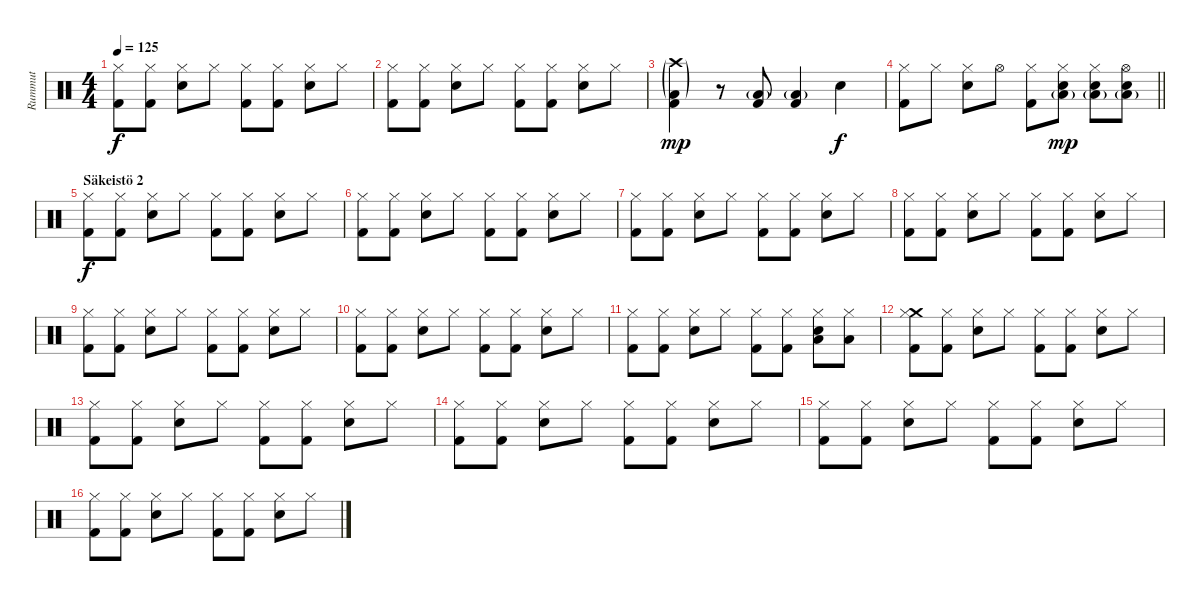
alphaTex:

\track ("Rummut" "Rummut") {instrument percussion}
\staff {score}
\articulation defaults
\ts (4 4)
\tempo 125
\clef neutral
\ks c
("Kick (hit) 2" "Hi-Hat (closed)").8{dy f} ("Kick (hit) 2" "Hi-Hat (closed)").8 ("Snare (hit) 2" "Hi-Hat (closed)").8 "Hi-Hat (closed)".8 ("Kick (hit) 2" "Hi-Hat (closed)").8 ("Kick (hit) 2" "Hi-Hat (closed)").8 ("Snare (hit) 2" "Hi-Hat (closed)").8 "Hi-Hat (closed)".8 |
("Kick (hit) 2" "Hi-Hat (closed)").8 ("Kick (hit) 2" "Hi-Hat (closed)").8 ("Snare (hit) 2" "Hi-Hat (closed)").8 "Hi-Hat (closed)".8 ("Kick (hit) 2" "Hi-Hat (closed)").8 ("Kick (hit) 2" "Hi-Hat (closed)").8 ("Snare (hit) 2" "Hi-Hat (closed)").8 "Hi-Hat (closed)".8 |
("Low Tom (hit)"{g} "Kick (hit) 2" "Crash high (hit)"{g}).4{dy mp} r.8 ("Low Tom (hit)"{g} "Kick (hit) 2").8 ("Low Tom (hit)"{g} "Kick (hit) 2").4 "Snare (hit) 2".4{dy f} |
\barLineRight lightlight
("Hi-Hat (closed)" "Kick (hit) 2").8 "Hi-Hat (closed)".8 ("Hi-Hat (closed)" "Snare (hit) 2").8 "Hi-Hat (open)".8 ("Hi-Hat (closed)" "Kick (hit) 2").8 ("Hi-Hat (closed)" "Snare (hit) 2" "Low Tom (hit)"{g}).8{dy mp} ("Hi-Hat (closed)" "Snare (hit) 2" "Low Tom (hit)"{g}).8 ("Hi-Hat (open)" "Snare (hit) 2" "Low Tom (hit)"{g}).8 |
\section ("" "Säkeistö 2")
("Kick (hit) 2" "Hi-Hat (closed)").8{dy f} ("Kick (hit) 2" "Hi-Hat (closed)").8 ("Snare (hit) 2" "Hi-Hat (closed)").8 "Hi-Hat (closed)".8 ("Kick (hit) 2" "Hi-Hat (closed)").8 ("Kick (hit) 2" "Hi-Hat (closed)").8 ("Snare (hit) 2" "Hi-Hat (closed)").8 "Hi-Hat (closed)".8 |
("Kick (hit) 2" "Hi-Hat (closed)").8 ("Kick (hit) 2" "Hi-Hat (closed)").8 ("Snare (hit) 2" "Hi-Hat (closed)").8 "Hi-Hat (closed)".8 ("Kick (hit) 2" "Hi-Hat (closed)").8 ("Kick (hit) 2" "Hi-Hat (closed)").8 ("Snare (hit) 2" "Hi-Hat (closed)").8 "Hi-Hat (closed)".8 |
("Kick (hit) 2" "Hi-Hat (closed)").8 ("Kick (hit) 2" "Hi-Hat (closed)").8 ("Snare (hit) 2" "Hi-Hat (closed)").8 "Hi-Hat (closed)".8 ("Kick (hit) 2" "Hi-Hat (closed)").8 ("Kick (hit) 2" "Hi-Hat (closed)").8 ("Snare (hit) 2" "Hi-Hat (closed)").8 "Hi-Hat (closed)".8 |
("Kick (hit) 2" "Hi-Hat (closed)").8 ("Kick (hit) 2" "Hi-Hat (closed)").8 ("Snare (hit) 2" "Hi-Hat (closed)").8 "Hi-Hat (closed)".8 ("Kick (hit) 2" "Hi-Hat (closed)").8 ("Kick (hit) 2" "Hi-Hat (closed)").8 ("Snare (hit) 2" "Hi-Hat (closed)").8 "Hi-Hat (closed)".8 |
("Kick (hit) 2" "Hi-Hat (closed)").8 ("Kick (hit) 2" "Hi-Hat (closed)").8 ("Snare (hit) 2" "Hi-Hat (closed)").8 "Hi-Hat (closed)".8 ("Kick (hit) 2" "Hi-Hat (closed)").8 ("Kick (hit) 2" "Hi-Hat (closed)").8 ("Snare (hit) 2" "Hi-Hat (closed)").8 "Hi-Hat (closed)".8 |
("Kick (hit) 2" "Hi-Hat (closed)").8 ("Kick (hit) 2" "Hi-Hat (closed)").8 ("Snare (hit) 2" "Hi-Hat (closed)").8 "Hi-Hat (closed)".8 ("Kick (hit) 2" "Hi-Hat (closed)").8 ("Kick (hit) 2" "Hi-Hat (closed)").8 ("Snare (hit) 2" "Hi-Hat (closed)").8 "Hi-Hat (closed)".8 |
("Kick (hit) 2" "Hi-Hat (closed)").8 ("Kick (hit) 2" "Hi-Hat (closed)").8 ("Snare (hit) 2" "Hi-Hat (closed)").8 "Hi-Hat (closed)".8 ("Kick (hit) 2" "Hi-Hat (closed)").8 ("Kick (hit) 2" "Hi-Hat (closed)").8 ("Low Tom (hit)" "Snare (hit) 2" "Hi-Hat (closed)").8 ("Low Tom (hit)" "Hi-Hat (closed)").8 |
("Crash medium (hit)" "Kick (hit) 2" "Hi-Hat (closed)").8 ("Kick (hit) 2" "Hi-Hat (closed)").8 ("Snare (hit) 2" "Hi-Hat (closed)").8 "Hi-Hat (closed)".8 ("Kick (hit) 2" "Hi-Hat (closed)").8 ("Kick (hit) 2" "Hi-Hat (closed)").8 ("Snare (hit) 2" "Hi-Hat (closed)").8 "Hi-Hat (closed)".8 |
("Kick (hit) 2" "Hi-Hat (closed)").8 ("Kick (hit) 2" "Hi-Hat (closed)").8 ("Snare (hit) 2" "Hi-Hat (closed)").8 "Hi-Hat (closed)".8 ("Kick (hit) 2" "Hi-Hat (closed)").8 ("Kick (hit) 2" "Hi-Hat (closed)").8 ("Snare (hit) 2" "Hi-Hat (closed)").8 "Hi-Hat (closed)".8 |
("Kick (hit) 2" "Hi-Hat (closed)").8 ("Kick (hit) 2" "Hi-Hat (closed)").8 ("Snare (hit) 2" "Hi-Hat (closed)").8 "Hi-Hat (closed)".8 ("Kick (hit) 2" "Hi-Hat (closed)").8 ("Kick (hit) 2" "Hi-Hat (closed)").8 ("Snare (hit) 2" "Hi-Hat (closed)").8 "Hi-Hat (closed)".8 |
("Kick (hit) 2" "Hi-Hat (closed)").8 ("Kick (hit) 2" "Hi-Hat (closed)").8 ("Snare (hit) 2" "Hi-Hat (closed)").8 "Hi-Hat (closed)".8 ("Kick (hit) 2" "Hi-Hat (closed)").8 ("Kick (hit) 2" "Hi-Hat (closed)").8 ("Snare (hit) 2" "Hi-Hat (closed)").8 "Hi-Hat (closed)".8 |
("Kick (hit) 2" "Hi-Hat (closed)").8 ("Kick (hit) 2" "Hi-Hat (closed)").8 ("Snare (hit) 2" "Hi-Hat (closed)").8 "Hi-Hat (closed)".8 ("Kick (hit) 2" "Hi-Hat (closed)").8 ("Kick (hit) 2" "Hi-Hat (closed)").8 ("Snare (hit) 2" "Hi-Hat (closed)").8 "Hi-Hat (closed)".8
